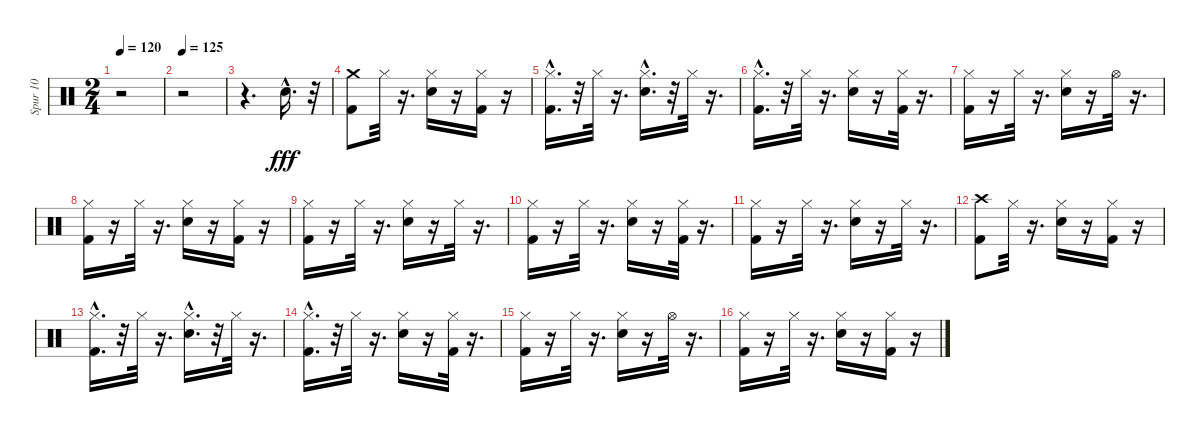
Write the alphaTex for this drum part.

\track ("Spur 10" "Spur 10") {instrument percussion}
\staff {score}
\articulation defaults
\ts (2 4)
\tempo 120
\clef neutral
\ks c
r.2{dy fff} |
\tempo 125
r.2 |
r.4{d} "Snare (hit) 2"{hac}.16{d} r.32 |
("Kick (hit) 2" "Crash medium (hit)").8 "Hi-Hat (closed)".32 r.16{d} ("Snare (hit) 2" "Hi-Hat (closed)").16 r.16 ("Kick (hit) 2" "Hi-Hat (closed)").16 r.16 |
("Kick (hit) 2"{hac} "Hi-Hat (closed)").16{d} r.32 "Hi-Hat (closed)".32 r.16{d} ("Snare (hit) 2"{hac} "Hi-Hat (closed)").16{d} r.32 "Hi-Hat (closed)".32 r.16{d} |
("Kick (hit) 2"{hac} "Hi-Hat (closed)").16{d} r.32 "Hi-Hat (closed)".32 r.16{d} ("Snare (hit) 2" "Hi-Hat (closed)").16 r.16 ("Kick (hit) 2" "Hi-Hat (closed)").32 r.16{d} |
("Kick (hit) 2" "Hi-Hat (closed)").16 r.16 "Hi-Hat (closed)".32 r.16{d} ("Snare (hit) 2" "Hi-Hat (closed)").16 r.16 "Hi-Hat (open)".32 r.16{d} |
("Kick (hit) 2" "Hi-Hat (closed)").16 r.16 "Hi-Hat (closed)".32 r.16{d} ("Snare (hit) 2" "Hi-Hat (closed)").16 r.16 ("Kick (hit) 2" "Hi-Hat (closed)").16 r.16 |
("Kick (hit) 2" "Hi-Hat (closed)").16 r.16 "Hi-Hat (closed)".32 r.16{d} ("Snare (hit) 2" "Hi-Hat (closed)").16 r.16 "Hi-Hat (closed)".32 r.16{d} |
("Kick (hit) 2" "Hi-Hat (closed)").16 r.16 "Hi-Hat (closed)".32 r.16{d} ("Snare (hit) 2" "Hi-Hat (closed)").16 r.16 ("Kick (hit) 2" "Hi-Hat (closed)").32 r.16{d} |
("Kick (hit) 2" "Hi-Hat (closed)").16 r.16 "Hi-Hat (closed)".32 r.16{d} ("Snare (hit) 2" "Hi-Hat (closed)").16 r.16 "Hi-Hat (closed)".32 r.16{d} |
("Kick (hit) 2" "Crash high (hit)").8 "Hi-Hat (closed)".32 r.16{d} ("Snare (hit) 2" "Hi-Hat (closed)").16 r.16 ("Kick (hit) 2" "Hi-Hat (closed)").16 r.16 |
("Kick (hit) 2"{hac} "Hi-Hat (closed)").16{d} r.32 "Hi-Hat (closed)".32 r.16{d} ("Snare (hit) 2"{hac} "Hi-Hat (closed)").16{d} r.32 "Hi-Hat (closed)".32 r.16{d} |
("Kick (hit) 2"{hac} "Hi-Hat (closed)").16{d} r.32 "Hi-Hat (closed)".32 r.16{d} ("Snare (hit) 2" "Hi-Hat (closed)").16 r.16 ("Kick (hit) 2" "Hi-Hat (closed)").32 r.16{d} |
("Kick (hit) 2" "Hi-Hat (closed)").16 r.16 "Hi-Hat (closed)".32 r.16{d} ("Snare (hit) 2" "Hi-Hat (closed)").16 r.16 "Hi-Hat (open)".32 r.16{d} |
("Kick (hit) 2" "Hi-Hat (closed)").16 r.16 "Hi-Hat (closed)".32 r.16{d} ("Snare (hit) 2" "Hi-Hat (closed)").16 r.16 ("Kick (hit) 2" "Hi-Hat (closed)").16 r.16
